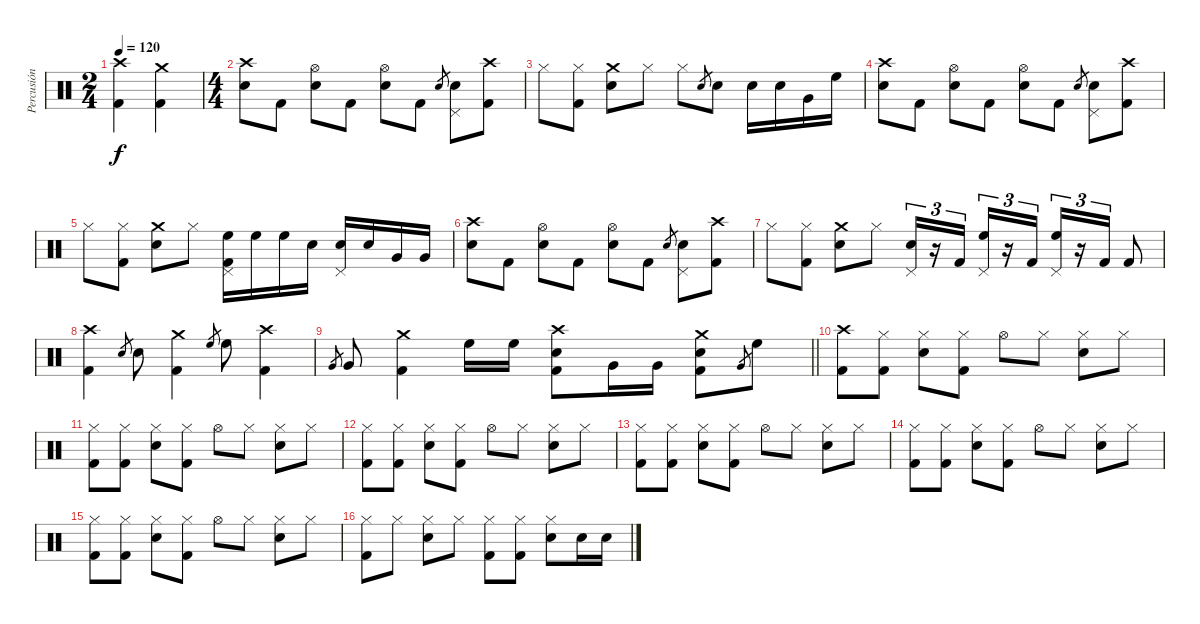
\track ("Percusión" "Percusión") {instrument percussion}
\staff {score}
\articulation defaults
\ts (2 4)
\tempo 120
\clef neutral
\ks c
("Crash high (hit)" "Kick (hit) 2").4{dy f} ("Crash medium (hit)" "Kick (hit) 2").4 |
\ts (4 4)
("Crash high (hit)" "Electric Snare (hit)").8 "Kick (hit) 2".8 ("Hi-Hat (open)" "Electric Snare (hit)").8 "Kick (hit) 2".8 ("Hi-Hat (open)" "Electric Snare (hit)").8 "Kick (hit) 2".8 "Snare (hit) 2".8{gr} ("Pedal Hi-Hat (hit)" "Snare (hit) 2").8 ("Crash high (hit)" "Kick (hit) 2").8 |
"Hi-Hat (closed)".8 ("Hi-Hat (closed)" "Kick (hit) 2").8 ("Crash medium (hit)" "Snare (hit) 2").8 "Hi-Hat (closed)".8 "Hi-Hat (closed)".8 "Snare (hit) 2".8{gr} "Snare (hit) 2".8 "Electric Snare (hit)".16 "Electric Snare (hit)".16 "Very Low Tom (hit)".16 "High Floor Tom (hit)".16 |
("Crash high (hit)" "Electric Snare (hit)").8 "Kick (hit) 2".8 ("Hi-Hat (open)" "Electric Snare (hit)").8 "Kick (hit) 2".8 ("Hi-Hat (open)" "Electric Snare (hit)").8 "Kick (hit) 2".8 "Snare (hit) 2".8{gr} ("Pedal Hi-Hat (hit)" "Snare (hit) 2").8 ("Crash high (hit)" "Kick (hit) 2").8 |
"Hi-Hat (closed)".8 ("Hi-Hat (closed)" "Kick (hit) 2").8 ("Crash medium (hit)" "Snare (hit) 2").8 "Hi-Hat (closed)".8 ("Pedal Hi-Hat (hit)" "High Floor Tom (hit)" "Kick (hit) 2").16 "High Floor Tom (hit)".16 "High Floor Tom (hit)".16 "Snare (hit) 2".16 ("Pedal Hi-Hat (hit)" "Snare (hit) 2").16 "Snare (hit) 2".16 "Very Low Tom (hit)".16 "Very Low Tom (hit)".16 |
("Crash high (hit)" "Electric Snare (hit)").8 "Kick (hit) 2".8 ("Hi-Hat (open)" "Electric Snare (hit)").8 "Kick (hit) 2".8 ("Hi-Hat (open)" "Electric Snare (hit)").8 "Kick (hit) 2".8 "Snare (hit) 2".8{gr} ("Pedal Hi-Hat (hit)" "Snare (hit) 2").8 ("Crash high (hit)" "Kick (hit) 2").8 |
"Hi-Hat (closed)".8 ("Hi-Hat (closed)" "Kick (hit) 2").8 ("Crash medium (hit)" "Snare (hit) 2").8 "Hi-Hat (closed)".8 ("Pedal Hi-Hat (hit)" "Snare (hit) 2").16{tu (3 2)} r.16{tu (3 2)} "Kick (hit) 2".16{tu (3 2)} ("Pedal Hi-Hat (hit)" "High Floor Tom (hit)").16{tu (3 2)} r.16{tu (3 2)} "Kick (hit) 2".16{tu (3 2)} ("Pedal Hi-Hat (hit)" "High Floor Tom (hit)").16{tu (3 2)} r.16{tu (3 2)} "Kick (hit) 2".16{tu (3 2)} "Kick (hit) 2".8 |
("Crash high (hit)" "Kick (hit) 2").4 "Snare (hit) 2".8{gr} "Snare (hit) 2".8 ("Crash medium (hit)" "Kick (hit) 2").4 "High Floor Tom (hit)".8{gr} "High Floor Tom (hit)".8 ("Crash high (hit)" "Kick (hit) 2").4 |
\barLineRight lightlight "Very Low Tom (hit)".8{gr} "Very Low Tom (hit)".8
("Crash medium (hit)" "Kick (hit) 2").4 "High Floor Tom (hit)".16 "High Floor Tom (hit)".16 ("Crash high (hit)" "Electric Snare (hit)" "Kick (hit) 2").8 "Very Low Tom (hit)".16 "Very Low Tom (hit)".16 ("Crash medium (hit)" "Electric Snare (hit)" "Kick (hit) 2").8 "Very Low Tom (hit)".8{gr} "High Floor Tom (hit)".8 |
("Crash high (hit)" "Kick (hit) 2").8 ("Hi-Hat (closed)" "Kick (hit) 2").8 ("Hi-Hat (closed)" "Electric Snare (hit)").8 ("Hi-Hat (closed)" "Kick (hit) 2").8 "Hi-Hat (open)".8 "Hi-Hat (closed)".8 ("Hi-Hat (closed)" "Electric Snare (hit)").8 "Hi-Hat (closed)".8 |
("Hi-Hat (closed)" "Kick (hit) 2").8 ("Hi-Hat (closed)" "Kick (hit) 2").8 ("Hi-Hat (closed)" "Electric Snare (hit)").8 ("Hi-Hat (closed)" "Kick (hit) 2").8 "Hi-Hat (open)".8 "Hi-Hat (closed)".8 ("Hi-Hat (closed)" "Electric Snare (hit)").8 "Hi-Hat (closed)".8 |
("Hi-Hat (closed)" "Kick (hit) 2").8 ("Hi-Hat (closed)" "Kick (hit) 2").8 ("Hi-Hat (closed)" "Electric Snare (hit)").8 ("Hi-Hat (closed)" "Kick (hit) 2").8 "Hi-Hat (open)".8 "Hi-Hat (closed)".8 ("Hi-Hat (closed)" "Electric Snare (hit)").8 "Hi-Hat (closed)".8 |
("Hi-Hat (closed)" "Kick (hit) 2").8 ("Hi-Hat (closed)" "Kick (hit) 2").8 ("Hi-Hat (closed)" "Electric Snare (hit)").8 ("Hi-Hat (closed)" "Kick (hit) 2").8 "Hi-Hat (open)".8 "Hi-Hat (closed)".8 ("Hi-Hat (closed)" "Electric Snare (hit)").8 "Hi-Hat (closed)".8 |
("Hi-Hat (closed)" "Kick (hit) 2").8 ("Hi-Hat (closed)" "Kick (hit) 2").8 ("Hi-Hat (closed)" "Electric Snare (hit)").8 ("Hi-Hat (closed)" "Kick (hit) 2").8 "Hi-Hat (open)".8 "Hi-Hat (closed)".8 ("Hi-Hat (closed)" "Electric Snare (hit)").8 "Hi-Hat (closed)".8 |
("Hi-Hat (closed)" "Kick (hit) 2").8 ("Hi-Hat (closed)" "Kick (hit) 2").8 ("Hi-Hat (closed)" "Electric Snare (hit)").8 ("Hi-Hat (closed)" "Kick (hit) 2").8 "Hi-Hat (open)".8 "Hi-Hat (closed)".8 ("Hi-Hat (closed)" "Electric Snare (hit)").8 "Hi-Hat (closed)".8 |
("Hi-Hat (closed)" "Kick (hit) 2").8 "Hi-Hat (closed)".8 ("Hi-Hat (closed)" "Electric Snare (hit)").8 "Hi-Hat (closed)".8 ("Hi-Hat (closed)" "Kick (hit) 2").8 ("Hi-Hat (closed)" "Kick (hit) 2").8 ("Hi-Hat (closed)" "Electric Snare (hit)").8 "Electric Snare (hit)".16 "Electric Snare (hit)".16
